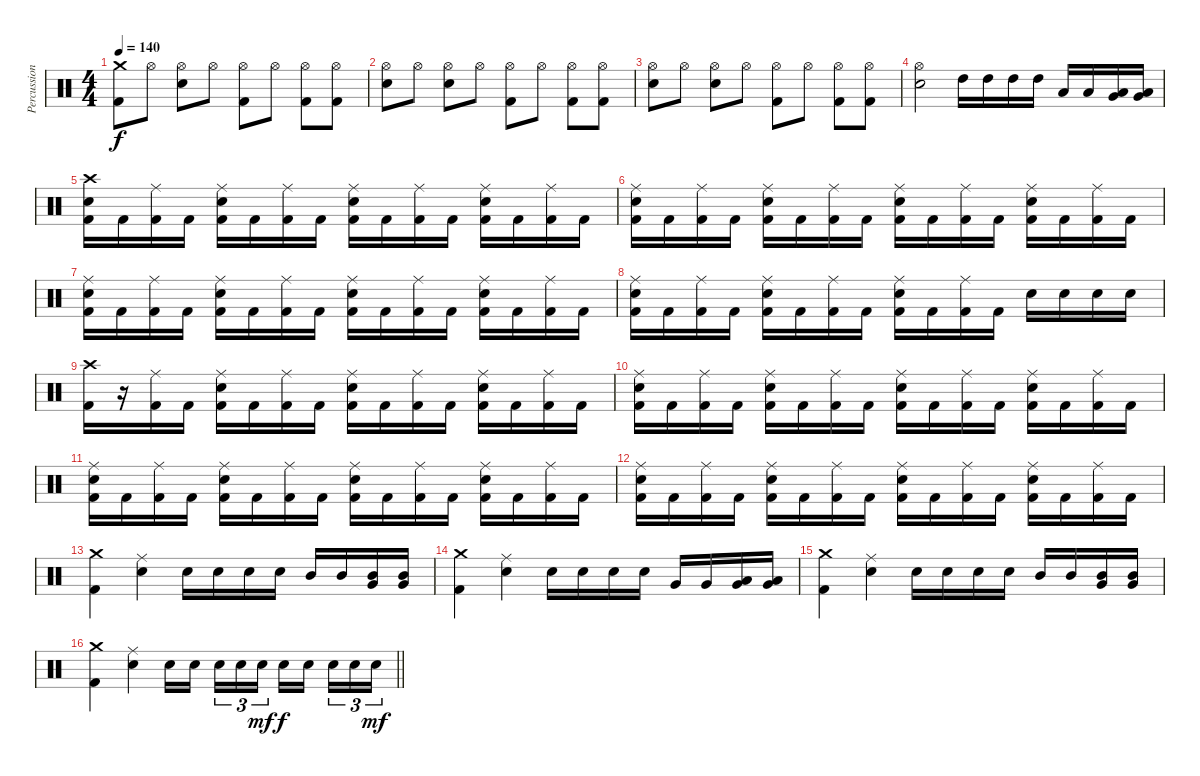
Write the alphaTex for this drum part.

\track ("Percussion" "Percussion") {instrument percussion}
\staff {score}
\articulation defaults
\ts (4 4)
\tempo 140
\clef neutral
\ks c
("Crash medium (hit)" "Kick (hit) 2").8{dy f} "Hi-Hat (open)".8 ("Hi-Hat (open)" "Electric Snare (hit)").8 "Hi-Hat (open)".8 ("Hi-Hat (open)" "Kick (hit) 2").8 "Hi-Hat (open)".8 ("Hi-Hat (open)" "Kick (hit) 2").8 ("Hi-Hat (open)" "Kick (hit) 2").8 |
("Hi-Hat (open)" "Electric Snare (hit)").8 "Hi-Hat (open)".8 ("Hi-Hat (open)" "Electric Snare (hit)").8 "Hi-Hat (open)".8 ("Hi-Hat (open)" "Kick (hit) 2").8 "Hi-Hat (open)".8 ("Hi-Hat (open)" "Kick (hit) 2").8 ("Hi-Hat (open)" "Kick (hit) 2").8 |
("Hi-Hat (open)" "Electric Snare (hit)").8 "Hi-Hat (open)".8 ("Hi-Hat (open)" "Electric Snare (hit)").8 "Hi-Hat (open)".8 ("Hi-Hat (open)" "Kick (hit) 2").8 "Hi-Hat (open)".8 ("Hi-Hat (open)" "Kick (hit) 2").8 ("Hi-Hat (open)" "Kick (hit) 2").8 |
("Hi-Hat (open)" "Electric Snare (hit)").2 "High Tom (hit)".16 "High Tom (hit)".16 "High Tom (hit)".16 "High Tom (hit)".16 "Low Tom (hit)".16 "Low Tom (hit)".16 ("Very Low Tom (hit)" "Low Floor Tom (hit)").16 ("Very Low Tom (hit)" "Low Floor Tom (hit)").16 |
("Crash high (hit)" "Electric Snare (hit)" "Kick (hit) 2").16 "Kick (hit) 2".16 ("Ride (middle)" "Kick (hit) 2").16 "Kick (hit) 2".16 ("Ride (middle)" "Electric Snare (hit)" "Kick (hit) 2").16 "Kick (hit) 2".16 ("Ride (middle)" "Kick (hit) 2").16 "Kick (hit) 2".16 ("Ride (middle)" "Electric Snare (hit)" "Kick (hit) 2").16 "Kick (hit) 2".16 ("Ride (middle)" "Kick (hit) 2").16 "Kick (hit) 2".16 ("Ride (middle)" "Electric Snare (hit)" "Kick (hit) 2").16 "Kick (hit) 2".16 ("Ride (middle)" "Kick (hit) 2").16 "Kick (hit) 2".16 |
("Ride (middle)" "Electric Snare (hit)" "Kick (hit) 2").16 "Kick (hit) 2".16 ("Ride (middle)" "Kick (hit) 2").16 "Kick (hit) 2".16 ("Ride (middle)" "Electric Snare (hit)" "Kick (hit) 2").16 "Kick (hit) 2".16 ("Ride (middle)" "Kick (hit) 2").16 "Kick (hit) 2".16 ("Ride (middle)" "Electric Snare (hit)" "Kick (hit) 2").16 "Kick (hit) 2".16 ("Ride (middle)" "Kick (hit) 2").16 "Kick (hit) 2".16 ("Ride (middle)" "Electric Snare (hit)" "Kick (hit) 2").16 "Kick (hit) 2".16 ("Ride (middle)" "Kick (hit) 2").16 "Kick (hit) 2".16 |
("Ride (middle)" "Electric Snare (hit)" "Kick (hit) 2").16 "Kick (hit) 2".16 ("Ride (middle)" "Kick (hit) 2").16 "Kick (hit) 2".16 ("Ride (middle)" "Electric Snare (hit)" "Kick (hit) 2").16 "Kick (hit) 2".16 ("Ride (middle)" "Kick (hit) 2").16 "Kick (hit) 2".16 ("Ride (middle)" "Electric Snare (hit)" "Kick (hit) 2").16 "Kick (hit) 2".16 ("Ride (middle)" "Kick (hit) 2").16 "Kick (hit) 2".16 ("Ride (middle)" "Electric Snare (hit)" "Kick (hit) 2").16 "Kick (hit) 2".16 ("Ride (middle)" "Kick (hit) 2").16 "Kick (hit) 2".16 |
("Ride (middle)" "Electric Snare (hit)" "Kick (hit) 2").16 "Kick (hit) 2".16 ("Ride (middle)" "Kick (hit) 2").16 "Kick (hit) 2".16 ("Ride (middle)" "Electric Snare (hit)" "Kick (hit) 2").16 "Kick (hit) 2".16 ("Ride (middle)" "Kick (hit) 2").16 "Kick (hit) 2".16 ("Ride (middle)" "Electric Snare (hit)" "Kick (hit) 2").16 "Kick (hit) 2".16 ("Ride (middle)" "Kick (hit) 2").16 "Kick (hit) 2".16 "Electric Snare (hit)".16 "Electric Snare (hit)".16 "Electric Snare (hit)".16 "Electric Snare (hit)".16 |
("Crash high (hit)" "Kick (hit) 2").16 r.16 ("Ride (middle)" "Kick (hit) 2").16 "Kick (hit) 2".16 ("Ride (middle)" "Electric Snare (hit)" "Kick (hit) 2").16 "Kick (hit) 2".16 ("Ride (middle)" "Kick (hit) 2").16 "Kick (hit) 2".16 ("Ride (middle)" "Electric Snare (hit)" "Kick (hit) 2").16 "Kick (hit) 2".16 ("Ride (middle)" "Kick (hit) 2").16 "Kick (hit) 2".16 ("Ride (middle)" "Electric Snare (hit)" "Kick (hit) 2").16 "Kick (hit) 2".16 ("Ride (middle)" "Kick (hit) 2").16 "Kick (hit) 2".16 |
("Ride (middle)" "Electric Snare (hit)" "Kick (hit) 2").16 "Kick (hit) 2".16 ("Ride (middle)" "Kick (hit) 2").16 "Kick (hit) 2".16 ("Ride (middle)" "Electric Snare (hit)" "Kick (hit) 2").16 "Kick (hit) 2".16 ("Ride (middle)" "Kick (hit) 2").16 "Kick (hit) 2".16 ("Ride (middle)" "Electric Snare (hit)" "Kick (hit) 2").16 "Kick (hit) 2".16 ("Ride (middle)" "Kick (hit) 2").16 "Kick (hit) 2".16 ("Ride (middle)" "Electric Snare (hit)" "Kick (hit) 2").16 "Kick (hit) 2".16 ("Ride (middle)" "Kick (hit) 2").16 "Kick (hit) 2".16 |
("Ride (middle)" "Electric Snare (hit)" "Kick (hit) 2").16 "Kick (hit) 2".16 ("Ride (middle)" "Kick (hit) 2").16 "Kick (hit) 2".16 ("Ride (middle)" "Electric Snare (hit)" "Kick (hit) 2").16 "Kick (hit) 2".16 ("Ride (middle)" "Kick (hit) 2").16 "Kick (hit) 2".16 ("Ride (middle)" "Electric Snare (hit)" "Kick (hit) 2").16 "Kick (hit) 2".16 ("Ride (middle)" "Kick (hit) 2").16 "Kick (hit) 2".16 ("Ride (middle)" "Electric Snare (hit)" "Kick (hit) 2").16 "Kick (hit) 2".16 ("Ride (middle)" "Kick (hit) 2").16 "Kick (hit) 2".16 |
("Ride (middle)" "Electric Snare (hit)" "Kick (hit) 2").16 "Kick (hit) 2".16 ("Ride (middle)" "Kick (hit) 2").16 "Kick (hit) 2".16 ("Ride (middle)" "Electric Snare (hit)" "Kick (hit) 2").16 "Kick (hit) 2".16 ("Ride (middle)" "Kick (hit) 2").16 "Kick (hit) 2".16 ("Ride (middle)" "Electric Snare (hit)" "Kick (hit) 2").16 "Kick (hit) 2".16 ("Ride (middle)" "Kick (hit) 2").16 "Kick (hit) 2".16 ("Ride (middle)" "Electric Snare (hit)" "Kick (hit) 2").16 "Kick (hit) 2".16 ("Ride (middle)" "Kick (hit) 2").16 "Kick (hit) 2".16 |
("Crash medium (hit)" "Kick (hit) 2").4 ("Ride (middle)" "Electric Snare (hit)").4 "Electric Snare (hit)".16 "Electric Snare (hit)".16 "Electric Snare (hit)".16 "Electric Snare (hit)".16 "Mid Tom (hit)".16 "Mid Tom (hit)".16 ("Mid Tom (hit)" "Very Low Tom (hit)").16 ("Mid Tom (hit)" "Very Low Tom (hit)").16 |
("Crash medium (hit)" "Kick (hit) 2").4 ("Ride (middle)" "Electric Snare (hit)").4 "Electric Snare (hit)".16 "Electric Snare (hit)".16 "Electric Snare (hit)".16 "Electric Snare (hit)".16 "Very Low Tom (hit)".16 "Very Low Tom (hit)".16 ("Very Low Tom (hit)" "Low Floor Tom (hit)").16 ("Very Low Tom (hit)" "Low Floor Tom (hit)").16 |
("Crash medium (hit)" "Kick (hit) 2").4 ("Ride (middle)" "Electric Snare (hit)").4 "Electric Snare (hit)".16 "Electric Snare (hit)".16 "Electric Snare (hit)".16 "Electric Snare (hit)".16 "Mid Tom (hit)".16 "Mid Tom (hit)".16 ("Mid Tom (hit)" "Very Low Tom (hit)").16 ("Mid Tom (hit)" "Very Low Tom (hit)").16 |
\barLineRight lightlight
("Crash medium (hit)" "Kick (hit) 2").4 ("Ride (middle)" "Electric Snare (hit)").4 "Electric Snare (hit)".16 "Electric Snare (hit)".16{beam splitsecondary} "Electric Snare (hit)".16{tu (3 2)} "Electric Snare (hit)".16{tu (3 2)} "Electric Snare (hit)".16{tu (3 2) dy mf} "Electric Snare (hit)".16{dy f} "Electric Snare (hit)".16{beam splitsecondary} "Electric Snare (hit)".16{tu (3 2)} "Electric Snare (hit)".16{tu (3 2)} "Electric Snare (hit)".16{tu (3 2) dy mf}
